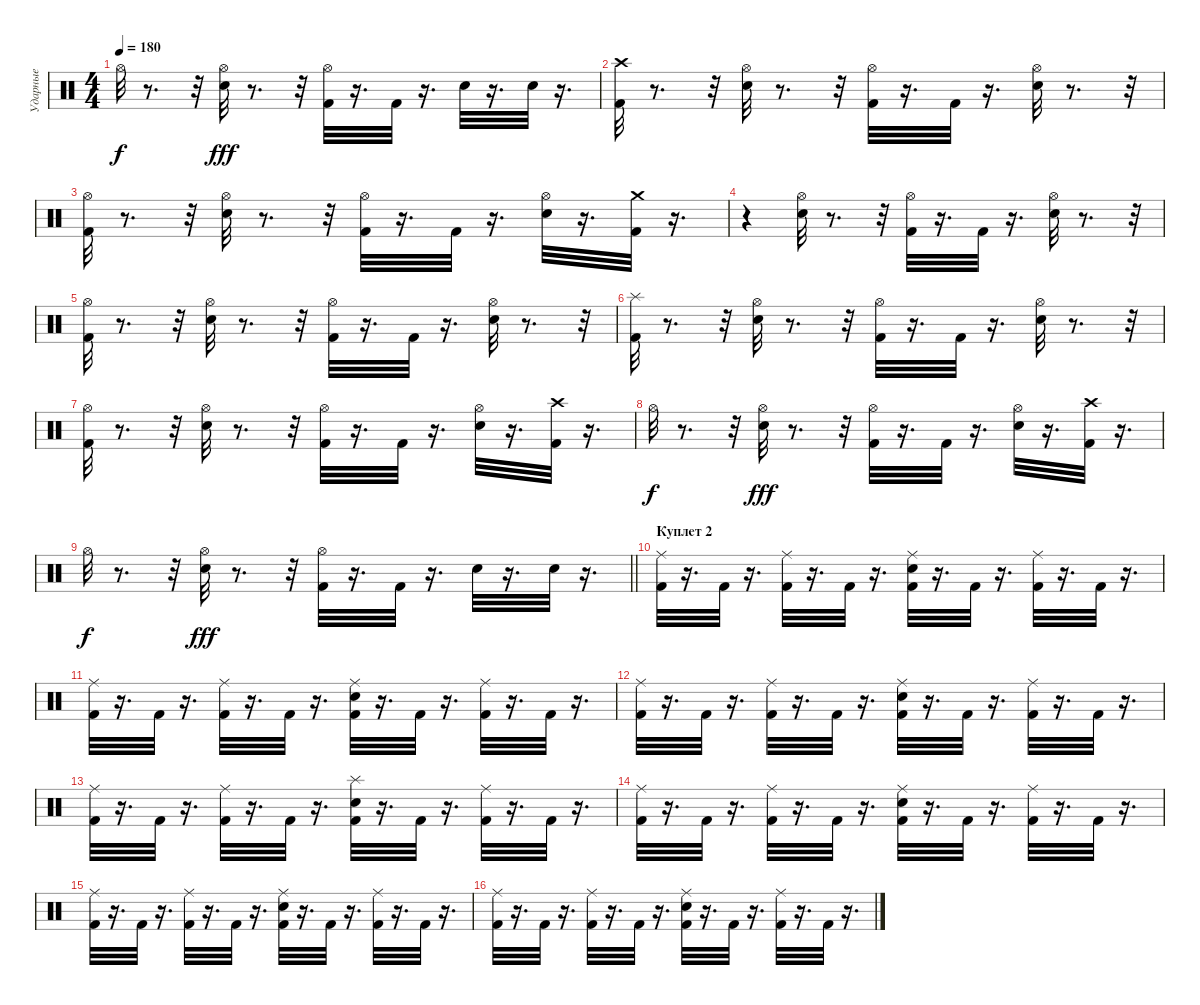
\track ("Ударные" "Ударные") {instrument percussion}
\staff {score}
\articulation defaults
\ts (4 4)
\tempo 180
\clef neutral
\ks c "Hi-Hat (open)".32{dy f}
r.8{d} r.32 ("Hi-Hat (open)" "Snare (hit) 2").32{dy fff} r.8{d} r.32 ("Hi-Hat (open)" "Kick (hit) 2").32 r.16{d} "Kick (hit) 2".32 r.16{d} "Snare (hit) 2".32 r.16{d} "Snare (hit) 2".32 r.16{d} |
("Kick (hit) 2" "Crash high (hit)").32 r.8{d} r.32 ("Snare (hit) 2" "Hi-Hat (open)").32 r.8{d} r.32 ("Hi-Hat (open)" "Kick (hit) 2").32 r.16{d} "Kick (hit) 2".32 r.16{d} ("Hi-Hat (open)" "Snare (hit) 2").32 r.8{d} r.32 |
("Hi-Hat (open)" "Kick (hit) 2").32 r.8{d} r.32 ("Hi-Hat (open)" "Snare (hit) 2").32 r.8{d} r.32 ("Kick (hit) 2" "Hi-Hat (open)").32 r.16{d} "Kick (hit) 2".32 r.16{d} ("Hi-Hat (open)" "Snare (hit) 2").32 r.16{d} ("Crash medium (hit)" "Kick (hit) 2").32 r.16{d} |
r.4 ("Snare (hit) 2" "Hi-Hat (open)").32 r.8{d} r.32 ("Hi-Hat (open)" "Kick (hit) 2").32 r.16{d} "Kick (hit) 2".32 r.16{d} ("Hi-Hat (open)" "Snare (hit) 2").32 r.8{d} r.32 |
("Hi-Hat (open)" "Kick (hit) 2").32 r.8{d} r.32 ("Snare (hit) 2" "Hi-Hat (open)").32 r.8{d} r.32 ("Kick (hit) 2" "Hi-Hat (open)").32 r.16{d} "Kick (hit) 2".32 r.16{d} ("Hi-Hat (open)" "Snare (hit) 2").32 r.8{d} r.32 |
("Kick (hit) 2" "Splash (hit)").32 r.8{d} r.32 ("Snare (hit) 2" "Hi-Hat (open)").32 r.8{d} r.32 ("Kick (hit) 2" "Hi-Hat (open)").32 r.16{d} "Kick (hit) 2".32 r.16{d} ("Hi-Hat (open)" "Snare (hit) 2").32 r.8{d} r.32 |
("Kick (hit) 2" "Hi-Hat (open)").32 r.8{d} r.32 ("Snare (hit) 2" "Hi-Hat (open)").32 r.8{d} r.32 ("Kick (hit) 2" "Hi-Hat (open)").32 r.16{d} "Kick (hit) 2".32 r.16{d} ("Hi-Hat (open)" "Snare (hit) 2").32 r.16{d} ("Crash high (hit)" "Kick (hit) 2").32 r.16{d} |
"Hi-Hat (open)".32{dy f} r.8{d} r.32 ("Snare (hit) 2" "Hi-Hat (open)").32{dy fff} r.8{d} r.32 ("Hi-Hat (open)" "Kick (hit) 2").32 r.16{d} "Kick (hit) 2".32 r.16{d} ("Snare (hit) 2" "Hi-Hat (open)").32 r.16{d} ("Crash high (hit)" "Kick (hit) 2").32 r.16{d} |
\barLineRight lightlight "Hi-Hat (open)".32{dy f}
r.8{d} r.32 ("Snare (hit) 2" "Hi-Hat (open)").32{dy fff} r.8{d} r.32 ("Kick (hit) 2" "Hi-Hat (open)").32 r.16{d} "Kick (hit) 2".32 r.16{d} "Snare (hit) 2".32 r.16{d} "Snare (hit) 2".32 r.16{d} |
\section ("" "Куплет 2")
("Ride (middle)" "Kick (hit) 2").32 r.16{d} "Kick (hit) 2".32 r.16{d} ("Ride (middle)" "Kick (hit) 2").32 r.16{d} "Kick (hit) 2".32 r.16{d} ("Snare (hit) 2" "Ride (middle)" "Kick (hit) 2").32 r.16{d} "Kick (hit) 2".32 r.16{d} ("Ride (middle)" "Kick (hit) 2").32 r.16{d} "Kick (hit) 2".32 r.16{d} |
("Ride (middle)" "Kick (hit) 2").32 r.16{d} "Kick (hit) 2".32 r.16{d} ("Ride (middle)" "Kick (hit) 2").32 r.16{d} "Kick (hit) 2".32 r.16{d} ("Snare (hit) 2" "Kick (hit) 2" "Ride (middle)").32 r.16{d} "Kick (hit) 2".32 r.16{d} ("Ride (middle)" "Kick (hit) 2").32 r.16{d} "Kick (hit) 2".32 r.16{d} |
("Kick (hit) 2" "Ride (middle)").32 r.16{d} "Kick (hit) 2".32 r.16{d} ("Kick (hit) 2" "Ride (middle)").32 r.16{d} "Kick (hit) 2".32 r.16{d} ("Kick (hit) 2" "Snare (hit) 2" "Ride (middle)").32 r.16{d} "Kick (hit) 2".32 r.16{d} ("Ride (middle)" "Kick (hit) 2").32 r.16{d} "Kick (hit) 2".32 r.16{d} |
("Kick (hit) 2" "Ride (middle)").32 r.16{d} "Kick (hit) 2".32 r.16{d} ("Kick (hit) 2" "Ride (middle)").32 r.16{d} "Kick (hit) 2".32 r.16{d} ("Kick (hit) 2" "Splash (hit)" "Snare (hit) 2").32 r.16{d} "Kick (hit) 2".32 r.16{d} ("Kick (hit) 2" "Ride (middle)").32 r.16{d} "Kick (hit) 2".32 r.16{d} |
("Ride (middle)" "Kick (hit) 2").32 r.16{d} "Kick (hit) 2".32 r.16{d} ("Kick (hit) 2" "Ride (middle)").32 r.16{d} "Kick (hit) 2".32 r.16{d} ("Snare (hit) 2" "Ride (middle)" "Kick (hit) 2").32 r.16{d} "Kick (hit) 2".32 r.16{d} ("Kick (hit) 2" "Ride (middle)").32 r.16{d} "Kick (hit) 2".32 r.16{d} |
("Ride (middle)" "Kick (hit) 2").32 r.16{d} "Kick (hit) 2".32 r.16{d} ("Kick (hit) 2" "Ride (middle)").32 r.16{d} "Kick (hit) 2".32 r.16{d} ("Kick (hit) 2" "Snare (hit) 2" "Ride (middle)").32 r.16{d} "Kick (hit) 2".32 r.16{d} ("Ride (middle)" "Kick (hit) 2").32 r.16{d} "Kick (hit) 2".32 r.16{d} |
("Kick (hit) 2" "Ride (middle)").32 r.16{d} "Kick (hit) 2".32 r.16{d} ("Ride (middle)" "Kick (hit) 2").32 r.16{d} "Kick (hit) 2".32 r.16{d} ("Kick (hit) 2" "Snare (hit) 2" "Ride (middle)").32 r.16{d} "Kick (hit) 2".32 r.16{d} ("Ride (middle)" "Kick (hit) 2").32 r.16{d} "Kick (hit) 2".32 r.16{d}
